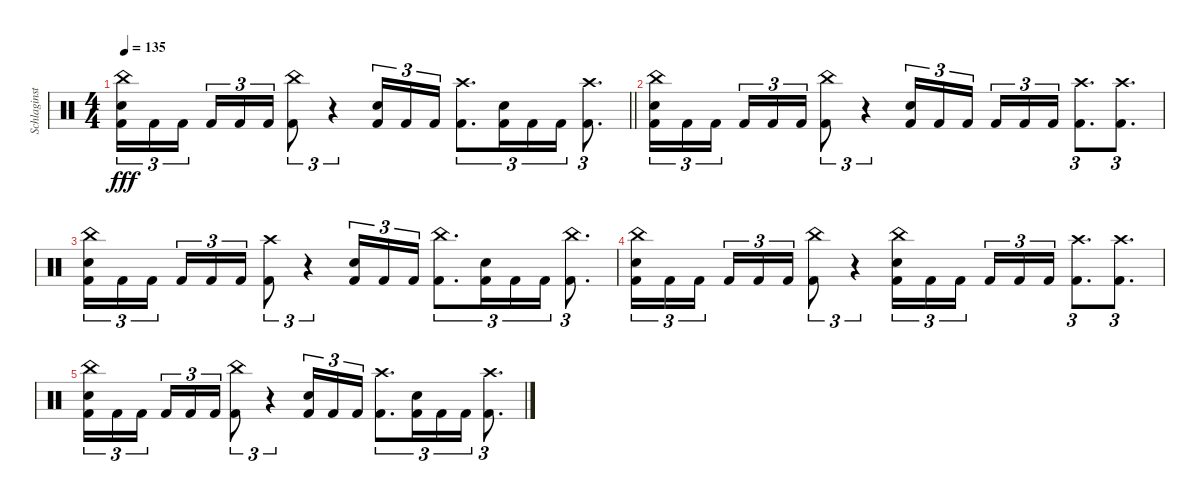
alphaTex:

\track ("Schlaginstrumente - Auswahl" "Schlaginst") {instrument percussion}
\staff {score}
\articulation defaults
\ts (4 4)
\tempo 135
\clef neutral
\barLineRight lightlight
\ks c
("China (hit)" "Snare (hit) 2" "Kick (hit) 2").16{tu (3 2) dy fff} "Kick (hit) 2".16{tu (3 2)} "Kick (hit) 2".16{tu (3 2) beam splitsecondary} "Kick (hit) 2".16{tu (3 2)} "Kick (hit) 2".16{tu (3 2)} "Kick (hit) 2".16{tu (3 2)} ("China (hit)" "Kick (hit) 2").8{tu (3 2)} r.4{tu (3 2)} ("Snare (hit) 2" "Kick (hit) 2").16{tu (3 2)} "Kick (hit) 2".16{tu (3 2)} "Kick (hit) 2".16{tu (3 2)} ("Crash high (hit)" "Kick (hit) 2").8{d tu (3 2)} ("Snare (hit) 2" "Kick (hit) 2").16{tu (3 2)} "Kick (hit) 2".16{tu (3 2)} "Kick (hit) 2".16{tu (3 2)} ("Crash high (hit)" "Kick (hit) 2").8{d tu (3 2)} |
("China (hit)" "Snare (hit) 2" "Kick (hit) 2").16{tu (3 2)} "Kick (hit) 2".16{tu (3 2)} "Kick (hit) 2".16{tu (3 2) beam splitsecondary} "Kick (hit) 2".16{tu (3 2)} "Kick (hit) 2".16{tu (3 2)} "Kick (hit) 2".16{tu (3 2)} ("China (hit)" "Kick (hit) 2").8{tu (3 2)} r.4{tu (3 2)} ("Snare (hit) 2" "Kick (hit) 2").16{tu (3 2)} "Kick (hit) 2".16{tu (3 2)} "Kick (hit) 2".16{tu (3 2) beam splitsecondary} "Kick (hit) 2".16{tu (3 2)} "Kick (hit) 2".16{tu (3 2)} "Kick (hit) 2".16{tu (3 2)} ("Crash high (hit)" "Kick (hit) 2").8{d tu (3 2)} ("Crash high (hit)" "Kick (hit) 2").8{d tu (3 2)} |
("China (hit)" "Snare (hit) 2" "Kick (hit) 2").16{tu (3 2)} "Kick (hit) 2".16{tu (3 2)} "Kick (hit) 2".16{tu (3 2) beam splitsecondary} "Kick (hit) 2".16{tu (3 2)} "Kick (hit) 2".16{tu (3 2)} "Kick (hit) 2".16{tu (3 2)} ("Crash high (hit)" "Kick (hit) 2").8{tu (3 2)} r.4{tu (3 2)} ("Snare (hit) 2" "Kick (hit) 2").16{tu (3 2)} "Kick (hit) 2".16{tu (3 2)} "Kick (hit) 2".16{tu (3 2)} ("China (hit)" "Kick (hit) 2").8{d tu (3 2)} ("Snare (hit) 2" "Kick (hit) 2").16{tu (3 2)} "Kick (hit) 2".16{tu (3 2)} "Kick (hit) 2".16{tu (3 2)} ("China (hit)" "Kick (hit) 2").8{d tu (3 2)} |
("China (hit)" "Snare (hit) 2" "Kick (hit) 2").16{tu (3 2)} "Kick (hit) 2".16{tu (3 2)} "Kick (hit) 2".16{tu (3 2) beam splitsecondary} "Kick (hit) 2".16{tu (3 2)} "Kick (hit) 2".16{tu (3 2)} "Kick (hit) 2".16{tu (3 2)} ("China (hit)" "Kick (hit) 2").8{tu (3 2)} r.4{tu (3 2)} ("China (hit)" "Snare (hit) 2" "Kick (hit) 2").16{tu (3 2)} "Kick (hit) 2".16{tu (3 2)} "Kick (hit) 2".16{tu (3 2) beam splitsecondary} "Kick (hit) 2".16{tu (3 2)} "Kick (hit) 2".16{tu (3 2)} "Kick (hit) 2".16{tu (3 2)} ("Crash high (hit)" "Kick (hit) 2").8{d tu (3 2)} ("Crash high (hit)" "Kick (hit) 2").8{d tu (3 2)} |
("China (hit)" "Snare (hit) 2" "Kick (hit) 2").16{tu (3 2)} "Kick (hit) 2".16{tu (3 2)} "Kick (hit) 2".16{tu (3 2) beam splitsecondary} "Kick (hit) 2".16{tu (3 2)} "Kick (hit) 2".16{tu (3 2)} "Kick (hit) 2".16{tu (3 2)} ("China (hit)" "Kick (hit) 2").8{tu (3 2)} r.4{tu (3 2)} ("Snare (hit) 2" "Kick (hit) 2").16{tu (3 2)} "Kick (hit) 2".16{tu (3 2)} "Kick (hit) 2".16{tu (3 2)} ("Crash high (hit)" "Kick (hit) 2").8{d tu (3 2)} ("Snare (hit) 2" "Kick (hit) 2").16{tu (3 2)} "Kick (hit) 2".16{tu (3 2)} "Kick (hit) 2".16{tu (3 2)} ("Crash high (hit)" "Kick (hit) 2").8{d tu (3 2)}
